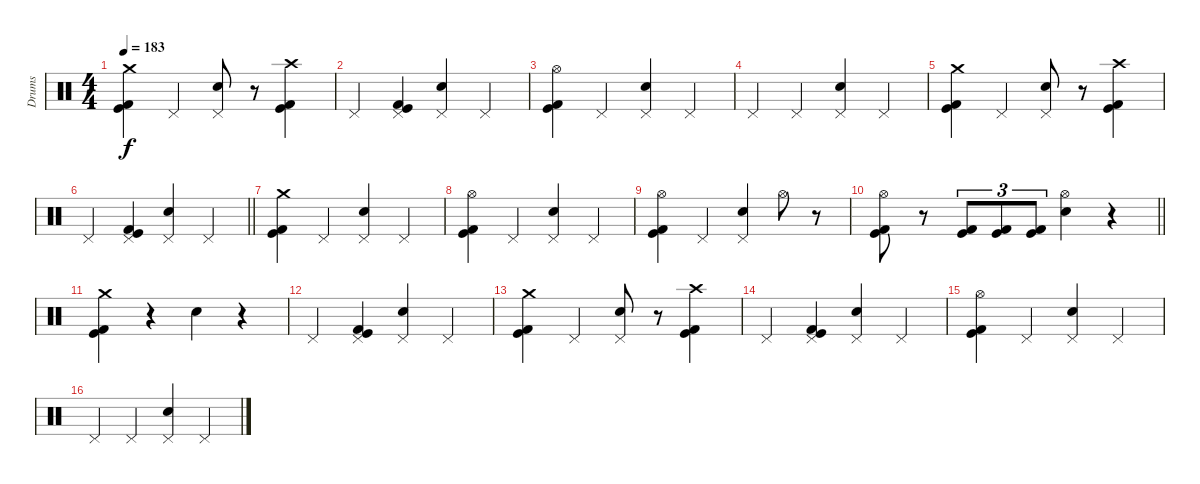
\track ("Drums" "Drums") {instrument percussion}
\staff
\articulation defaults
\ts (4 4)
\tempo 183
\clef neutral
\ks c
("Crash medium (hit)" "Kick (hit)" "Kick (hit) 2").4{dy f} "Pedal Hi-Hat (hit)".4 ("Pedal Hi-Hat (hit)" "Snare (hit) 2").8 r.8 ("Crash high (hit)" "Kick (hit)" "Kick (hit) 2").4 |
"Pedal Hi-Hat (hit)".4 ("Pedal Hi-Hat (hit)" "Kick (hit)" "Kick (hit) 2").4 ("Pedal Hi-Hat (hit)" "Snare (hit) 2").4 "Pedal Hi-Hat (hit)".4 |
("Hi-Hat (open)" "Kick (hit)" "Kick (hit) 2").4 "Pedal Hi-Hat (hit)".4 ("Pedal Hi-Hat (hit)" "Snare (hit) 2").4 "Pedal Hi-Hat (hit)".4 |
"Pedal Hi-Hat (hit)".4 "Pedal Hi-Hat (hit)".4 ("Pedal Hi-Hat (hit)" "Snare (hit) 2").4 "Pedal Hi-Hat (hit)".4 |
("Crash medium (hit)" "Kick (hit)" "Kick (hit) 2").4 "Pedal Hi-Hat (hit)".4 ("Pedal Hi-Hat (hit)" "Snare (hit) 2").8 r.8 ("Crash high (hit)" "Kick (hit)" "Kick (hit) 2").4 |
\barLineRight lightlight "Pedal Hi-Hat (hit)".4
("Pedal Hi-Hat (hit)" "Kick (hit)" "Kick (hit) 2").4 ("Pedal Hi-Hat (hit)" "Snare (hit) 2").4 "Pedal Hi-Hat (hit)".4 |
("Crash medium (hit)" "Kick (hit)" "Kick (hit) 2").4 "Pedal Hi-Hat (hit)".4 ("Pedal Hi-Hat (hit)" "Snare (hit) 2").4 "Pedal Hi-Hat (hit)".4 |
("Hi-Hat (open)" "Kick (hit)" "Kick (hit) 2").4 "Pedal Hi-Hat (hit)".4 ("Pedal Hi-Hat (hit)" "Snare (hit) 2").4 "Pedal Hi-Hat (hit)".4 |
("Hi-Hat (open)" "Kick (hit)" "Kick (hit) 2").4 "Pedal Hi-Hat (hit)".4 ("Pedal Hi-Hat (hit)" "Snare (hit) 2").4 "Hi-Hat (open)".8 r.8 |
\barLineRight lightlight
("Hi-Hat (open)" "Kick (hit)" "Kick (hit) 2").8 r.8 ("Kick (hit)" "Kick (hit) 2").8{tu (3 2)} ("Kick (hit)" "Kick (hit) 2").8{tu (3 2)} ("Kick (hit)" "Kick (hit) 2").8{tu (3 2)} ("Hi-Hat (open)" "Snare (hit) 2").4 r.4 |
("Crash medium (hit)" "Kick (hit)" "Kick (hit) 2").4 r.4 "Snare (hit) 2".4 r.4 |
"Pedal Hi-Hat (hit)".4 ("Pedal Hi-Hat (hit)" "Kick (hit)" "Kick (hit) 2").4 ("Pedal Hi-Hat (hit)" "Snare (hit) 2").4 "Pedal Hi-Hat (hit)".4 |
("Crash medium (hit)" "Kick (hit)" "Kick (hit) 2").4 "Pedal Hi-Hat (hit)".4 ("Pedal Hi-Hat (hit)" "Snare (hit) 2").8 r.8 ("Crash high (hit)" "Kick (hit)" "Kick (hit) 2").4 |
"Pedal Hi-Hat (hit)".4 ("Pedal Hi-Hat (hit)" "Kick (hit)" "Kick (hit) 2").4 ("Pedal Hi-Hat (hit)" "Snare (hit) 2").4 "Pedal Hi-Hat (hit)".4 |
("Hi-Hat (open)" "Kick (hit)" "Kick (hit) 2").4 "Pedal Hi-Hat (hit)".4 ("Pedal Hi-Hat (hit)" "Snare (hit) 2").4 "Pedal Hi-Hat (hit)".4 |
"Pedal Hi-Hat (hit)".4 "Pedal Hi-Hat (hit)".4 ("Pedal Hi-Hat (hit)" "Snare (hit) 2").4 "Pedal Hi-Hat (hit)".4
